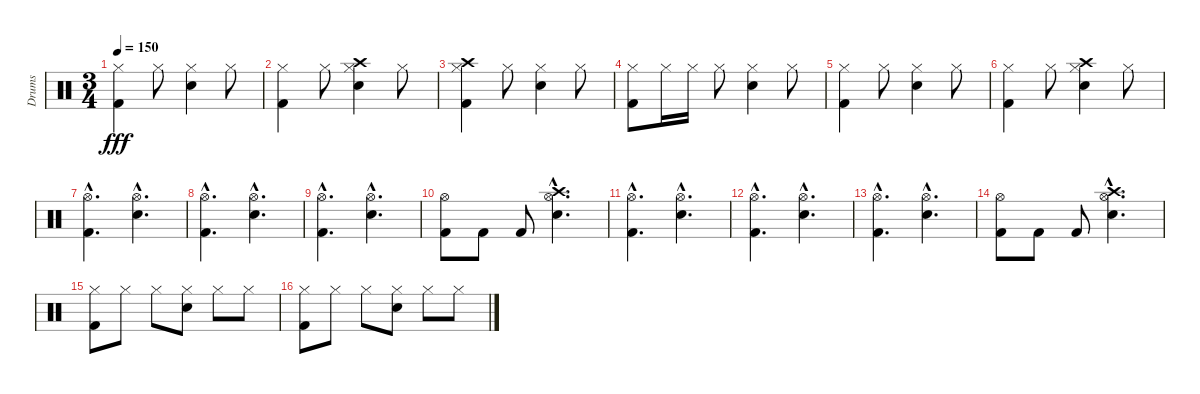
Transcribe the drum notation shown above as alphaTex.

\track ("Drums" "Drums") {instrument percussion}
\staff {score}
\articulation defaults
\ts (3 4)
\tempo 150
\clef neutral
\ks c
("Hi-Hat (closed)" "Kick (hit) 2").4{dy fff} "Hi-Hat (closed)".8 ("Hi-Hat (closed)" "Snare (hit) 2").4 "Hi-Hat (closed)".8 |
("Hi-Hat (closed)" "Kick (hit) 2").4 "Hi-Hat (closed)".8 ("Hi-Hat (closed)" "Snare (hit) 2" "Crash high (hit)").4 "Hi-Hat (closed)".8 |
("Hi-Hat (closed)" "Kick (hit) 2" "Crash high (hit)").4 "Hi-Hat (closed)".8 ("Hi-Hat (closed)" "Snare (hit) 2").4 "Hi-Hat (closed)".8 |
("Hi-Hat (closed)" "Kick (hit) 2").8 "Hi-Hat (closed)".16 "Hi-Hat (closed)".16 "Hi-Hat (closed)".8 ("Hi-Hat (closed)" "Snare (hit) 2").4 "Hi-Hat (closed)".8 |
("Hi-Hat (closed)" "Kick (hit) 2").4 "Hi-Hat (closed)".8 ("Hi-Hat (closed)" "Snare (hit) 2").4 "Hi-Hat (closed)".8 |
("Hi-Hat (closed)" "Kick (hit) 2").4 "Hi-Hat (closed)".8 ("Hi-Hat (closed)" "Snare (hit) 2" "Crash high (hit)").4 "Hi-Hat (closed)".8 |
("Hi-Hat (open)"{hac} "Kick (hit) 2"{hac}).4{d} ("Hi-Hat (open)"{hac} "Snare (hit) 2"{hac}).4{d} |
("Hi-Hat (open)"{hac} "Kick (hit) 2"{hac}).4{d} ("Hi-Hat (open)"{hac} "Snare (hit) 2"{hac}).4{d} |
("Hi-Hat (open)"{hac} "Kick (hit) 2"{hac}).4{d} ("Hi-Hat (open)"{hac} "Snare (hit) 2"{hac}).4{d} |
("Hi-Hat (open)" "Kick (hit) 2").8 "Kick (hit) 2".8 "Kick (hit) 2".8 ("Hi-Hat (open)"{hac} "Snare (hit) 2"{hac} "Crash high (hit)"{hac}).4{d} |
("Hi-Hat (open)"{hac} "Kick (hit) 2"{hac}).4{d} ("Hi-Hat (open)"{hac} "Snare (hit) 2"{hac}).4{d} |
("Hi-Hat (open)"{hac} "Kick (hit) 2"{hac}).4{d} ("Hi-Hat (open)"{hac} "Snare (hit) 2"{hac}).4{d} |
("Hi-Hat (open)"{hac} "Kick (hit) 2"{hac}).4{d} ("Hi-Hat (open)"{hac} "Snare (hit) 2"{hac}).4{d} |
("Hi-Hat (open)" "Kick (hit) 2").8 "Kick (hit) 2".8 "Kick (hit) 2".8 ("Hi-Hat (open)"{hac} "Snare (hit) 2"{hac} "Crash high (hit)"{hac}).4{d} |
("Hi-Hat (closed)" "Kick (hit) 2").8 "Hi-Hat (closed)".8 "Hi-Hat (closed)".8 ("Hi-Hat (closed)" "Snare (hit) 2").8 "Hi-Hat (closed)".8 "Hi-Hat (closed)".8 |
("Hi-Hat (closed)" "Kick (hit) 2").8 "Hi-Hat (closed)".8 "Hi-Hat (closed)".8 ("Hi-Hat (closed)" "Snare (hit) 2").8 "Hi-Hat (closed)".8 "Hi-Hat (closed)".8
